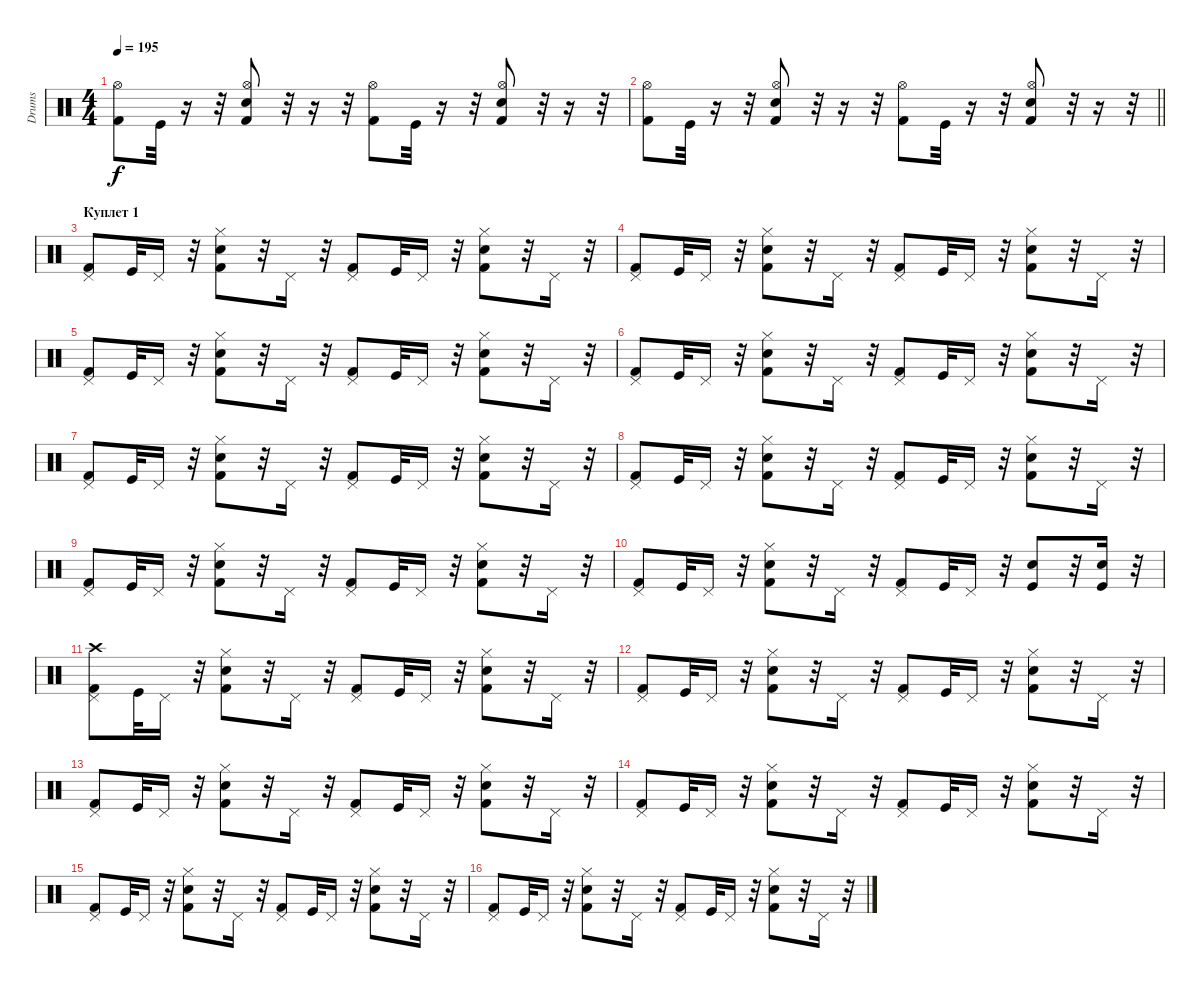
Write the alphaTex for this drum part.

\track ("Drums" "Drums") {instrument percussion}
\staff {score}
\articulation defaults
\ts (4 4)
\tempo 195
\clef neutral
\ks c
("Kick (hit) 2" "Hi-Hat (open)").8{dy f} "Kick (hit)".32 r.16 r.32 ("Snare (hit) 2" "Kick (hit) 2" "Hi-Hat (open)").8 r.32 r.16 r.32 ("Kick (hit) 2" "Hi-Hat (open)").8 "Kick (hit)".32 r.16 r.32 ("Snare (hit) 2" "Kick (hit) 2" "Hi-Hat (open)").8 r.32 r.16 r.32 |
\barLineRight lightlight
("Kick (hit) 2" "Hi-Hat (open)").8 "Kick (hit)".32 r.16 r.32 ("Snare (hit) 2" "Kick (hit) 2" "Hi-Hat (open)").8 r.32 r.16 r.32 ("Kick (hit) 2" "Hi-Hat (open)").8 "Kick (hit)".32 r.16 r.32 ("Snare (hit) 2" "Kick (hit) 2" "Hi-Hat (open)").8 r.32 r.16 r.32 |
\section ("" "Куплет 1")
("Kick (hit) 2" "Pedal Hi-Hat (hit)").8 "Kick (hit)".32 "Pedal Hi-Hat (hit)".16 r.32 ("Snare (hit) 2" "Kick (hit) 2" "Hi-Hat (closed)").8 r.32 "Pedal Hi-Hat (hit)".16 r.32 ("Kick (hit) 2" "Pedal Hi-Hat (hit)").8 "Kick (hit)".32 "Pedal Hi-Hat (hit)".16 r.32 ("Snare (hit) 2" "Kick (hit) 2" "Hi-Hat (closed)").8 r.32 "Pedal Hi-Hat (hit)".16 r.32 |
("Kick (hit) 2" "Pedal Hi-Hat (hit)").8 "Kick (hit)".32 "Pedal Hi-Hat (hit)".16 r.32 ("Snare (hit) 2" "Kick (hit) 2" "Hi-Hat (closed)").8 r.32 "Pedal Hi-Hat (hit)".16 r.32 ("Kick (hit) 2" "Pedal Hi-Hat (hit)").8 "Kick (hit)".32 "Pedal Hi-Hat (hit)".16 r.32 ("Snare (hit) 2" "Kick (hit) 2" "Hi-Hat (closed)").8 r.32 "Pedal Hi-Hat (hit)".16 r.32 |
("Kick (hit) 2" "Pedal Hi-Hat (hit)").8 "Kick (hit)".32 "Pedal Hi-Hat (hit)".16 r.32 ("Snare (hit) 2" "Kick (hit) 2" "Hi-Hat (closed)").8 r.32 "Pedal Hi-Hat (hit)".16 r.32 ("Kick (hit) 2" "Pedal Hi-Hat (hit)").8 "Kick (hit)".32 "Pedal Hi-Hat (hit)".16 r.32 ("Snare (hit) 2" "Kick (hit) 2" "Hi-Hat (closed)").8 r.32 "Pedal Hi-Hat (hit)".16 r.32 |
("Kick (hit) 2" "Pedal Hi-Hat (hit)").8 "Kick (hit)".32 "Pedal Hi-Hat (hit)".16 r.32 ("Snare (hit) 2" "Kick (hit) 2" "Hi-Hat (closed)").8 r.32 "Pedal Hi-Hat (hit)".16 r.32 ("Kick (hit) 2" "Pedal Hi-Hat (hit)").8 "Kick (hit)".32 "Pedal Hi-Hat (hit)".16 r.32 ("Snare (hit) 2" "Kick (hit) 2" "Hi-Hat (closed)").8 r.32 "Pedal Hi-Hat (hit)".16 r.32 |
("Kick (hit) 2" "Pedal Hi-Hat (hit)").8 "Kick (hit)".32 "Pedal Hi-Hat (hit)".16 r.32 ("Snare (hit) 2" "Kick (hit) 2" "Hi-Hat (closed)").8 r.32 "Pedal Hi-Hat (hit)".16 r.32 ("Kick (hit) 2" "Pedal Hi-Hat (hit)").8 "Kick (hit)".32 "Pedal Hi-Hat (hit)".16 r.32 ("Snare (hit) 2" "Kick (hit) 2" "Hi-Hat (closed)").8 r.32 "Pedal Hi-Hat (hit)".16 r.32 |
("Kick (hit) 2" "Pedal Hi-Hat (hit)").8 "Kick (hit)".32 "Pedal Hi-Hat (hit)".16 r.32 ("Snare (hit) 2" "Kick (hit) 2" "Hi-Hat (closed)").8 r.32 "Pedal Hi-Hat (hit)".16 r.32 ("Kick (hit) 2" "Pedal Hi-Hat (hit)").8 "Kick (hit)".32 "Pedal Hi-Hat (hit)".16 r.32 ("Snare (hit) 2" "Kick (hit) 2" "Hi-Hat (closed)").8 r.32 "Pedal Hi-Hat (hit)".16 r.32 |
("Kick (hit) 2" "Pedal Hi-Hat (hit)").8 "Kick (hit)".32 "Pedal Hi-Hat (hit)".16 r.32 ("Snare (hit) 2" "Kick (hit) 2" "Hi-Hat (closed)").8 r.32 "Pedal Hi-Hat (hit)".16 r.32 ("Kick (hit) 2" "Pedal Hi-Hat (hit)").8 "Kick (hit)".32 "Pedal Hi-Hat (hit)".16 r.32 ("Snare (hit) 2" "Kick (hit) 2" "Hi-Hat (closed)").8 r.32 "Pedal Hi-Hat (hit)".16 r.32 |
("Kick (hit) 2" "Pedal Hi-Hat (hit)").8 "Kick (hit)".32 "Pedal Hi-Hat (hit)".16 r.32 ("Snare (hit) 2" "Kick (hit) 2" "Hi-Hat (closed)").8 r.32 "Pedal Hi-Hat (hit)".16 r.32 ("Kick (hit) 2" "Pedal Hi-Hat (hit)").8 "Kick (hit)".32 "Pedal Hi-Hat (hit)".16 r.32 ("Electric Snare (hit)" "Kick (hit)").8 r.32 ("Electric Snare (hit)" "Kick (hit)").16 r.32 |
("Crash high (hit)" "Kick (hit) 2" "Pedal Hi-Hat (hit)").8 "Kick (hit)".32 "Pedal Hi-Hat (hit)".16 r.32 ("Snare (hit) 2" "Kick (hit) 2" "Hi-Hat (closed)").8 r.32 "Pedal Hi-Hat (hit)".16 r.32 ("Kick (hit) 2" "Pedal Hi-Hat (hit)").8 "Kick (hit)".32 "Pedal Hi-Hat (hit)".16 r.32 ("Snare (hit) 2" "Kick (hit) 2" "Hi-Hat (closed)").8 r.32 "Pedal Hi-Hat (hit)".16 r.32 |
("Kick (hit) 2" "Pedal Hi-Hat (hit)").8 "Kick (hit)".32 "Pedal Hi-Hat (hit)".16 r.32 ("Snare (hit) 2" "Kick (hit) 2" "Hi-Hat (closed)").8 r.32 "Pedal Hi-Hat (hit)".16 r.32 ("Kick (hit) 2" "Pedal Hi-Hat (hit)").8 "Kick (hit)".32 "Pedal Hi-Hat (hit)".16 r.32 ("Snare (hit) 2" "Kick (hit) 2" "Hi-Hat (closed)").8 r.32 "Pedal Hi-Hat (hit)".16 r.32 |
("Kick (hit) 2" "Pedal Hi-Hat (hit)").8 "Kick (hit)".32 "Pedal Hi-Hat (hit)".16 r.32 ("Snare (hit) 2" "Kick (hit) 2" "Hi-Hat (closed)").8 r.32 "Pedal Hi-Hat (hit)".16 r.32 ("Kick (hit) 2" "Pedal Hi-Hat (hit)").8 "Kick (hit)".32 "Pedal Hi-Hat (hit)".16 r.32 ("Snare (hit) 2" "Kick (hit) 2" "Hi-Hat (closed)").8 r.32 "Pedal Hi-Hat (hit)".16 r.32 |
("Kick (hit) 2" "Pedal Hi-Hat (hit)").8 "Kick (hit)".32 "Pedal Hi-Hat (hit)".16 r.32 ("Snare (hit) 2" "Kick (hit) 2" "Hi-Hat (closed)").8 r.32 "Pedal Hi-Hat (hit)".16 r.32 ("Kick (hit) 2" "Pedal Hi-Hat (hit)").8 "Kick (hit)".32 "Pedal Hi-Hat (hit)".16 r.32 ("Snare (hit) 2" "Kick (hit) 2" "Hi-Hat (closed)").8 r.32 "Pedal Hi-Hat (hit)".16 r.32 |
("Kick (hit) 2" "Pedal Hi-Hat (hit)").8 "Kick (hit)".32 "Pedal Hi-Hat (hit)".16 r.32 ("Snare (hit) 2" "Kick (hit) 2" "Hi-Hat (closed)").8 r.32 "Pedal Hi-Hat (hit)".16 r.32 ("Kick (hit) 2" "Pedal Hi-Hat (hit)").8 "Kick (hit)".32 "Pedal Hi-Hat (hit)".16 r.32 ("Snare (hit) 2" "Kick (hit) 2" "Hi-Hat (closed)").8 r.32 "Pedal Hi-Hat (hit)".16 r.32 |
("Kick (hit) 2" "Pedal Hi-Hat (hit)").8 "Kick (hit)".32 "Pedal Hi-Hat (hit)".16 r.32 ("Snare (hit) 2" "Kick (hit) 2" "Hi-Hat (closed)").8 r.32 "Pedal Hi-Hat (hit)".16 r.32 ("Kick (hit) 2" "Pedal Hi-Hat (hit)").8 "Kick (hit)".32 "Pedal Hi-Hat (hit)".16 r.32 ("Snare (hit) 2" "Kick (hit) 2" "Hi-Hat (closed)").8 r.32 "Pedal Hi-Hat (hit)".16 r.32
